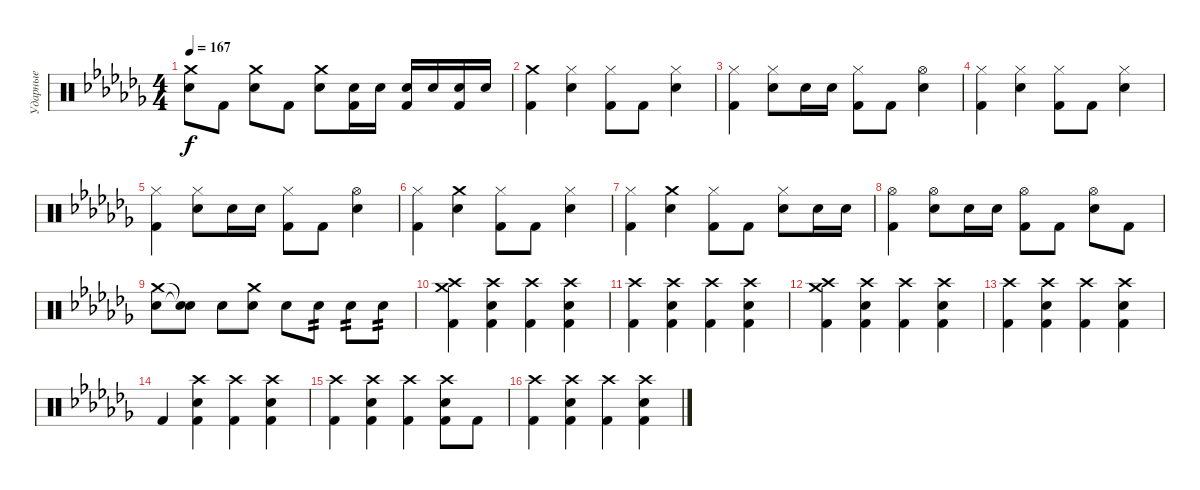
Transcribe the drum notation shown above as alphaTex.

\track ("Ударные" "Ударные") {instrument percussion}
\staff {score}
\articulation defaults
\ts (4 4)
\tempo 167
\clef neutral
\ks abminor
("Crash medium (hit)" "Electric Snare (hit)").8{dy f} "Kick (hit) 2".8 ("Crash medium (hit)" "Electric Snare (hit)").8 "Kick (hit) 2".8 ("Crash medium (hit)" "Electric Snare (hit)").8 ("Electric Snare (hit)" "Kick (hit) 2").16 "Electric Snare (hit)".16 ("Electric Snare (hit)" "Kick (hit) 2").16 "Electric Snare (hit)".16 ("Electric Snare (hit)" "Kick (hit) 2").16 "Electric Snare (hit)".16 |
("Crash medium (hit)" "Kick (hit) 2").4 ("Hi-Hat (closed)" "Electric Snare (hit)").4 ("Hi-Hat (closed)" "Kick (hit) 2").8 "Kick (hit) 2".8 ("Hi-Hat (closed)" "Electric Snare (hit)").4 |
("Hi-Hat (closed)" "Kick (hit) 2").4 ("Hi-Hat (closed)" "Electric Snare (hit)").8 "Electric Snare (hit)".16 "Electric Snare (hit)".16 ("Hi-Hat (closed)" "Kick (hit) 2").8 "Kick (hit) 2".8 ("Hi-Hat (open)" "Electric Snare (hit)").4 |
("Hi-Hat (closed)" "Kick (hit) 2").4 ("Hi-Hat (closed)" "Electric Snare (hit)").4 ("Hi-Hat (closed)" "Kick (hit) 2").8 "Kick (hit) 2".8 ("Hi-Hat (closed)" "Electric Snare (hit)").4 |
("Hi-Hat (closed)" "Kick (hit) 2").4 ("Hi-Hat (closed)" "Electric Snare (hit)").8 "Electric Snare (hit)".16 "Electric Snare (hit)".16 ("Hi-Hat (closed)" "Kick (hit) 2").8 "Kick (hit) 2".8 ("Hi-Hat (open)" "Electric Snare (hit)").4 |
("Hi-Hat (closed)" "Kick (hit) 2").4 ("Crash medium (hit)" "Electric Snare (hit)").4 ("Hi-Hat (closed)" "Kick (hit) 2").8 "Kick (hit) 2".8 ("Hi-Hat (closed)" "Electric Snare (hit)").4 |
("Hi-Hat (closed)" "Kick (hit) 2").4 ("Crash medium (hit)" "Electric Snare (hit)").4 ("Hi-Hat (closed)" "Kick (hit) 2").8 "Kick (hit) 2".8 ("Hi-Hat (closed)" "Electric Snare (hit)").8 "Electric Snare (hit)".16 "Electric Snare (hit)".16 |
("Hi-Hat (open)" "Kick (hit) 2").4 ("Hi-Hat (open)" "Electric Snare (hit)").8 "Electric Snare (hit)".16 "Electric Snare (hit)".16 ("Hi-Hat (open)" "Kick (hit) 2").8 "Kick (hit) 2".8 ("Hi-Hat (open)" "Electric Snare (hit)").8 "Kick (hit) 2".8 |
("Crash medium (hit)" "Electric Snare (hit)").8 ("Snare (hit)"{t} "Snare (hit)"{t}).8 "Electric Snare (hit)".8 ("Crash medium (hit)" "Electric Snare (hit)").8 "Electric Snare (hit)".8 "Electric Snare (hit)".8{tp 2} "Electric Snare (hit)".8{tp 2} "Electric Snare (hit)".8{tp 2} |
("Crash high (hit)" "Crash medium (hit)" "Kick (hit) 2").4 ("Crash high (hit)" "Electric Snare (hit)" "Kick (hit) 2").4 ("Crash high (hit)" "Kick (hit) 2").4 ("Crash high (hit)" "Electric Snare (hit)" "Kick (hit) 2").4 |
("Crash high (hit)" "Kick (hit) 2").4 ("Crash high (hit)" "Electric Snare (hit)" "Kick (hit) 2").4 ("Crash high (hit)" "Kick (hit) 2").4 ("Crash high (hit)" "Electric Snare (hit)" "Kick (hit) 2").4 |
("Crash high (hit)" "Crash medium (hit)" "Kick (hit) 2").4 ("Crash high (hit)" "Electric Snare (hit)" "Kick (hit) 2").4 ("Crash high (hit)" "Kick (hit) 2").4 ("Crash high (hit)" "Electric Snare (hit)" "Kick (hit) 2").4 |
("Crash high (hit)" "Kick (hit) 2").4 ("Crash high (hit)" "Electric Snare (hit)" "Kick (hit) 2").4 ("Crash high (hit)" "Kick (hit) 2").4 ("Crash high (hit)" "Electric Snare (hit)" "Kick (hit) 2").4 |
"Kick (hit) 2".4 ("Crash high (hit)" "Electric Snare (hit)" "Kick (hit) 2").4 ("Crash high (hit)" "Kick (hit) 2").4 ("Crash high (hit)" "Electric Snare (hit)" "Kick (hit) 2").4 |
("Crash high (hit)" "Kick (hit) 2").4 ("Crash high (hit)" "Electric Snare (hit)" "Kick (hit) 2").4 ("Crash high (hit)" "Kick (hit) 2").4 ("Crash high (hit)" "Electric Snare (hit)" "Kick (hit) 2").8 "Kick (hit) 2".8 |
("Crash high (hit)" "Kick (hit) 2").4 ("Crash high (hit)" "Electric Snare (hit)" "Kick (hit) 2").4 ("Crash high (hit)" "Kick (hit) 2").4 ("Crash high (hit)" "Electric Snare (hit)" "Kick (hit) 2").4
